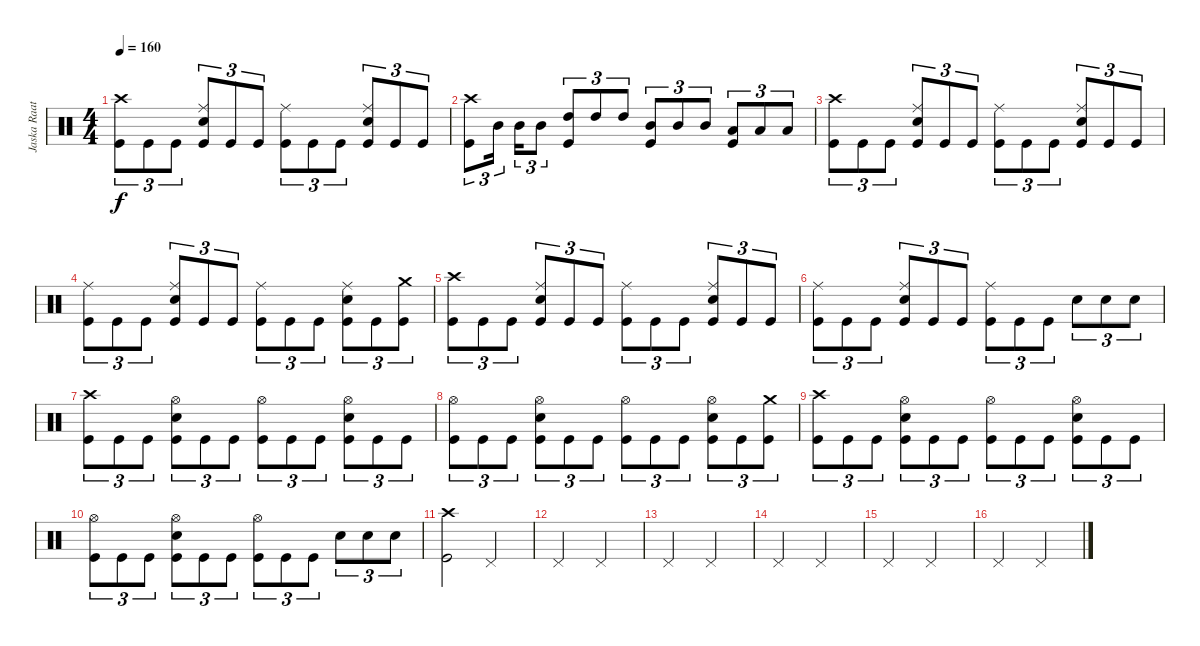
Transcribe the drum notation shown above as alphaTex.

\track ("Jaska Raatikainen" "Jaska Raat") {instrument percussion}
\staff {score}
\articulation defaults
\ts (4 4)
\tempo 160
\clef neutral
\ks c
("Crash high (hit)" "Kick (hit)").8{tu (3 2) dy f} "Kick (hit)".8{tu (3 2)} "Kick (hit)".8{tu (3 2)} ("Ride (middle)" "Electric Snare (hit)" "Kick (hit)").8{tu (3 2)} "Kick (hit)".8{tu (3 2)} "Kick (hit)".8{tu (3 2)} ("Ride (middle)" "Kick (hit)").8{tu (3 2)} "Kick (hit)".8{tu (3 2)} "Kick (hit)".8{tu (3 2)} ("Ride (middle)" "Electric Snare (hit)" "Kick (hit)").8{tu (3 2)} "Kick (hit)".8{tu (3 2)} "Kick (hit)".8{tu (3 2)} |
("Crash high (hit)" "Kick (hit)").8{tu (3 2)} "Mid Tom (hit)".16{tu (3 2)} "Mid Tom (hit)".16{tu (3 2)} "Mid Tom (hit)".8{tu (3 2)} ("High Tom (hit)" "Kick (hit)").8{tu (3 2)} "High Tom (hit)".8{tu (3 2)} "High Tom (hit)".8{tu (3 2)} ("Mid Tom (hit)" "Kick (hit)").8{tu (3 2)} "Mid Tom (hit)".8{tu (3 2)} "Mid Tom (hit)".8{tu (3 2)} ("Low Tom (hit)" "Kick (hit)").8{tu (3 2)} "Low Tom (hit)".8{tu (3 2)} "Low Tom (hit)".8{tu (3 2)} |
("Crash high (hit)" "Kick (hit)").8{tu (3 2)} "Kick (hit)".8{tu (3 2)} "Kick (hit)".8{tu (3 2)} ("Ride (middle)" "Electric Snare (hit)" "Kick (hit)").8{tu (3 2)} "Kick (hit)".8{tu (3 2)} "Kick (hit)".8{tu (3 2)} ("Ride (middle)" "Kick (hit)").8{tu (3 2)} "Kick (hit)".8{tu (3 2)} "Kick (hit)".8{tu (3 2)} ("Ride (middle)" "Electric Snare (hit)" "Kick (hit)").8{tu (3 2)} "Kick (hit)".8{tu (3 2)} "Kick (hit)".8{tu (3 2)} |
("Ride (middle)" "Kick (hit)").8{tu (3 2)} "Kick (hit)".8{tu (3 2)} "Kick (hit)".8{tu (3 2)} ("Ride (middle)" "Electric Snare (hit)" "Kick (hit)").8{tu (3 2)} "Kick (hit)".8{tu (3 2)} "Kick (hit)".8{tu (3 2)} ("Ride (middle)" "Kick (hit)").8{tu (3 2)} "Kick (hit)".8{tu (3 2)} "Kick (hit)".8{tu (3 2)} ("Ride (middle)" "Electric Snare (hit)" "Kick (hit)").8{tu (3 2)} "Kick (hit)".8{tu (3 2)} ("Crash medium (hit)" "Kick (hit)").8{tu (3 2)} |
("Crash high (hit)" "Kick (hit)").8{tu (3 2)} "Kick (hit)".8{tu (3 2)} "Kick (hit)".8{tu (3 2)} ("Ride (middle)" "Electric Snare (hit)" "Kick (hit)").8{tu (3 2)} "Kick (hit)".8{tu (3 2)} "Kick (hit)".8{tu (3 2)} ("Ride (middle)" "Kick (hit)").8{tu (3 2)} "Kick (hit)".8{tu (3 2)} "Kick (hit)".8{tu (3 2)} ("Ride (middle)" "Electric Snare (hit)" "Kick (hit)").8{tu (3 2)} "Kick (hit)".8{tu (3 2)} "Kick (hit)".8{tu (3 2)} |
("Ride (middle)" "Kick (hit)").8{tu (3 2)} "Kick (hit)".8{tu (3 2)} "Kick (hit)".8{tu (3 2)} ("Ride (middle)" "Electric Snare (hit)" "Kick (hit)").8{tu (3 2)} "Kick (hit)".8{tu (3 2)} "Kick (hit)".8{tu (3 2)} ("Ride (middle)" "Kick (hit)").8{tu (3 2)} "Kick (hit)".8{tu (3 2)} "Kick (hit)".8{tu (3 2)} "Electric Snare (hit)".8{tu (3 2)} "Electric Snare (hit)".8{tu (3 2)} "Electric Snare (hit)".8{tu (3 2)} |
("Crash high (hit)" "Kick (hit)").8{tu (3 2)} "Kick (hit)".8{tu (3 2)} "Kick (hit)".8{tu (3 2)} ("Hi-Hat (open)" "Electric Snare (hit)" "Kick (hit)").8{tu (3 2)} "Kick (hit)".8{tu (3 2)} "Kick (hit)".8{tu (3 2)} ("Hi-Hat (open)" "Kick (hit)").8{tu (3 2)} "Kick (hit)".8{tu (3 2)} "Kick (hit)".8{tu (3 2)} ("Hi-Hat (open)" "Electric Snare (hit)" "Kick (hit)").8{tu (3 2)} "Kick (hit)".8{tu (3 2)} "Kick (hit)".8{tu (3 2)} |
("Hi-Hat (open)" "Kick (hit)").8{tu (3 2)} "Kick (hit)".8{tu (3 2)} "Kick (hit)".8{tu (3 2)} ("Hi-Hat (open)" "Electric Snare (hit)" "Kick (hit)").8{tu (3 2)} "Kick (hit)".8{tu (3 2)} "Kick (hit)".8{tu (3 2)} ("Hi-Hat (open)" "Kick (hit)").8{tu (3 2)} "Kick (hit)".8{tu (3 2)} "Kick (hit)".8{tu (3 2)} ("Hi-Hat (open)" "Electric Snare (hit)" "Kick (hit)").8{tu (3 2)} "Kick (hit)".8{tu (3 2)} ("Crash medium (hit)" "Kick (hit)").8{tu (3 2)} |
("Crash high (hit)" "Kick (hit)").8{tu (3 2)} "Kick (hit)".8{tu (3 2)} "Kick (hit)".8{tu (3 2)} ("Hi-Hat (open)" "Electric Snare (hit)" "Kick (hit)").8{tu (3 2)} "Kick (hit)".8{tu (3 2)} "Kick (hit)".8{tu (3 2)} ("Hi-Hat (open)" "Kick (hit)").8{tu (3 2)} "Kick (hit)".8{tu (3 2)} "Kick (hit)".8{tu (3 2)} ("Hi-Hat (open)" "Electric Snare (hit)" "Kick (hit)").8{tu (3 2)} "Kick (hit)".8{tu (3 2)} "Kick (hit)".8{tu (3 2)} |
("Hi-Hat (open)" "Kick (hit)").8{tu (3 2)} "Kick (hit)".8{tu (3 2)} "Kick (hit)".8{tu (3 2)} ("Hi-Hat (open)" "Electric Snare (hit)" "Kick (hit)").8{tu (3 2)} "Kick (hit)".8{tu (3 2)} "Kick (hit)".8{tu (3 2)} ("Hi-Hat (open)" "Kick (hit)").8{tu (3 2)} "Kick (hit)".8{tu (3 2)} "Kick (hit)".8{tu (3 2)} "Electric Snare (hit)".8{tu (3 2)} "Electric Snare (hit)".8{tu (3 2)} "Electric Snare (hit)".8{tu (3 2)} |
("Crash high (hit)" "Kick (hit)").2 "Pedal Hi-Hat (hit)".2 |
"Pedal Hi-Hat (hit)".2 "Pedal Hi-Hat (hit)".2 |
"Pedal Hi-Hat (hit)".2 "Pedal Hi-Hat (hit)".2 |
"Pedal Hi-Hat (hit)".2 "Pedal Hi-Hat (hit)".2 |
"Pedal Hi-Hat (hit)".2 "Pedal Hi-Hat (hit)".2 |
"Pedal Hi-Hat (hit)".2 "Pedal Hi-Hat (hit)".2
